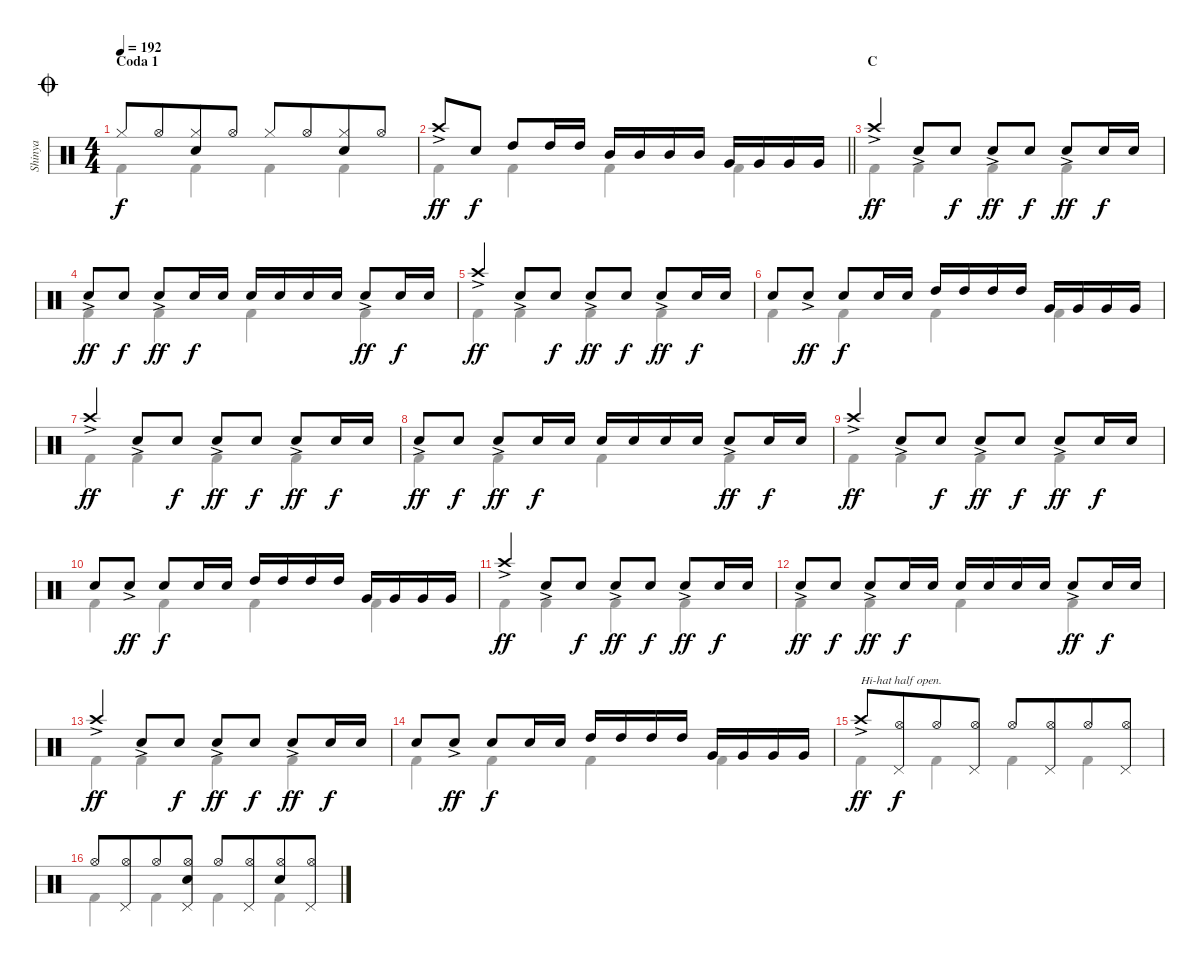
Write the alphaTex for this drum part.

\track ("Shinya" "Shinya") {instrument percussion}
\staff {score}
\articulation defaults
\voice
\ts (4 4)
\section ("" "Coda 1")
\jump coda
\tempo 192
\clef neutral
\ks c "Hi-Hat (closed)".8{dy f} "Hi-Hat (open)".8{beam merge}
("Hi-Hat (closed)" "Snare (hit) 2").8 "Hi-Hat (open)".8{beam split} "Hi-Hat (closed)".8 "Hi-Hat (open)".8{beam merge} ("Hi-Hat (closed)" "Snare (hit) 2").8 "Hi-Hat (open)".8 |
\barLineRight lightlight "Crash high (hit)"{ac}.8{dy ff} "Snare (hit) 2".8{dy f} "High Tom (hit)".8 "High Tom (hit)".16 "High Tom (hit)".16 "Mid Tom (hit)".16 "Mid Tom (hit)".16 "Mid Tom (hit)".16 "Mid Tom (hit)".16 "Very Low Tom (hit)".16 "Very Low Tom (hit)".16 "Very Low Tom (hit)".16 "Very Low Tom (hit)".16
|
\section ("" "C")
"Crash high (hit)"{ac}.4{dy ff} "Snare (hit) 2"{ac}.8 "Snare (hit) 2".8{dy f} "Snare (hit) 2"{ac}.8{dy ff} "Snare (hit) 2".8{dy f} "Snare (hit) 2"{ac}.8{dy ff} "Snare (hit) 2".16{dy f} "Snare (hit) 2".16 |
"Snare (hit) 2"{ac}.8{dy ff} "Snare (hit) 2".8{dy f} "Snare (hit) 2"{ac}.8{dy ff} "Snare (hit) 2".16{dy f} "Snare (hit) 2".16 "Snare (hit) 2".16 "Snare (hit) 2".16 "Snare (hit) 2".16 "Snare (hit) 2".16 "Snare (hit) 2"{ac}.8{dy ff} "Snare (hit) 2".16{dy f} "Snare (hit) 2".16 |
"Crash high (hit)"{ac}.4{dy ff} "Snare (hit) 2"{ac}.8 "Snare (hit) 2".8{dy f} "Snare (hit) 2"{ac}.8{dy ff} "Snare (hit) 2".8{dy f} "Snare (hit) 2"{ac}.8{dy ff} "Snare (hit) 2".16{dy f} "Snare (hit) 2".16 |
"Snare (hit) 2".8 "Snare (hit) 2"{ac}.8{dy ff} "Snare (hit) 2".8{dy f} "Snare (hit) 2".16 "Snare (hit) 2".16 "High Tom (hit)".16 "High Tom (hit)".16 "High Tom (hit)".16 "High Tom (hit)".16 "Very Low Tom (hit)".16 "Very Low Tom (hit)".16 "Very Low Tom (hit)".16 "Very Low Tom (hit)".16 |
"Crash high (hit)"{ac}.4{dy ff} "Snare (hit) 2"{ac}.8 "Snare (hit) 2".8{dy f} "Snare (hit) 2"{ac}.8{dy ff} "Snare (hit) 2".8{dy f} "Snare (hit) 2"{ac}.8{dy ff} "Snare (hit) 2".16{dy f} "Snare (hit) 2".16 |
"Snare (hit) 2"{ac}.8{dy ff} "Snare (hit) 2".8{dy f} "Snare (hit) 2"{ac}.8{dy ff} "Snare (hit) 2".16{dy f} "Snare (hit) 2".16 "Snare (hit) 2".16 "Snare (hit) 2".16 "Snare (hit) 2".16 "Snare (hit) 2".16 "Snare (hit) 2"{ac}.8{dy ff} "Snare (hit) 2".16{dy f} "Snare (hit) 2".16 |
"Crash high (hit)"{ac}.4{dy ff} "Snare (hit) 2"{ac}.8 "Snare (hit) 2".8{dy f} "Snare (hit) 2"{ac}.8{dy ff} "Snare (hit) 2".8{dy f} "Snare (hit) 2"{ac}.8{dy ff} "Snare (hit) 2".16{dy f} "Snare (hit) 2".16 |
"Snare (hit) 2".8 "Snare (hit) 2"{ac}.8{dy ff} "Snare (hit) 2".8{dy f} "Snare (hit) 2".16 "Snare (hit) 2".16 "High Tom (hit)".16 "High Tom (hit)".16 "High Tom (hit)".16 "High Tom (hit)".16 "Very Low Tom (hit)".16 "Very Low Tom (hit)".16 "Very Low Tom (hit)".16 "Very Low Tom (hit)".16 |
"Crash high (hit)"{ac}.4{dy ff} "Snare (hit) 2"{ac}.8 "Snare (hit) 2".8{dy f} "Snare (hit) 2"{ac}.8{dy ff} "Snare (hit) 2".8{dy f} "Snare (hit) 2"{ac}.8{dy ff} "Snare (hit) 2".16{dy f} "Snare (hit) 2".16 |
"Snare (hit) 2"{ac}.8{dy ff} "Snare (hit) 2".8{dy f} "Snare (hit) 2"{ac}.8{dy ff} "Snare (hit) 2".16{dy f} "Snare (hit) 2".16 "Snare (hit) 2".16 "Snare (hit) 2".16 "Snare (hit) 2".16 "Snare (hit) 2".16 "Snare (hit) 2"{ac}.8{dy ff} "Snare (hit) 2".16{dy f} "Snare (hit) 2".16 |
"Crash high (hit)"{ac}.4{dy ff} "Snare (hit) 2"{ac}.8 "Snare (hit) 2".8{dy f} "Snare (hit) 2"{ac}.8{dy ff} "Snare (hit) 2".8{dy f} "Snare (hit) 2"{ac}.8{dy ff} "Snare (hit) 2".16{dy f} "Snare (hit) 2".16 |
"Snare (hit) 2".8 "Snare (hit) 2"{ac}.8{dy ff} "Snare (hit) 2".8{dy f} "Snare (hit) 2".16 "Snare (hit) 2".16 "High Tom (hit)".16 "High Tom (hit)".16 "High Tom (hit)".16 "High Tom (hit)".16 "Very Low Tom (hit)".16 "Very Low Tom (hit)".16 "Very Low Tom (hit)".16 "Very Low Tom (hit)".16 |
"Crash high (hit)"{ac}.8{txt "Hi-hat half open." dy ff} ("Hi-Hat (open)" "Pedal Hi-Hat (hit)").8{dy f beam merge} "Hi-Hat (open)".8 ("Hi-Hat (open)" "Pedal Hi-Hat (hit)").8 "Hi-Hat (open)".8 ("Hi-Hat (open)" "Pedal Hi-Hat (hit)").8{beam merge} "Hi-Hat (open)".8 ("Hi-Hat (open)" "Pedal Hi-Hat (hit)").8 |
"Hi-Hat (open)".8 ("Hi-Hat (open)" "Pedal Hi-Hat (hit)").8{beam merge} "Hi-Hat (open)".8 ("Hi-Hat (open)" "Pedal Hi-Hat (hit)" "Snare (hit) 2").8 "Hi-Hat (open)".8 ("Hi-Hat (open)" "Pedal Hi-Hat (hit)").8{beam merge} ("Hi-Hat (open)" "Snare (hit) 2").8 ("Hi-Hat (open)" "Pedal Hi-Hat (hit)").8
\voice
\clef neutral
\ottava regular
\simile none
\ks c "Kick (hit) 2".4{dy f} "Kick (hit) 2".4 "Kick (hit) 2".4 "Kick (hit) 2".4
|
\barLineRight lightlight "Kick (hit) 2".4 "Kick (hit) 2".4 "Kick (hit) 2".4 "Kick (hit) 2".4
|
"Kick (hit) 2".4 "Kick (hit) 2".4 "Kick (hit) 2".4 "Kick (hit) 2".4 |
"Kick (hit) 2".4 "Kick (hit) 2".4 "Kick (hit) 2".4 "Kick (hit) 2".4 |
"Kick (hit) 2".4 "Kick (hit) 2".4 "Kick (hit) 2".4 "Kick (hit) 2".4 |
"Kick (hit) 2".4 "Kick (hit) 2".4 "Kick (hit) 2".4 "Kick (hit) 2".4 |
"Kick (hit) 2".4 "Kick (hit) 2".4 "Kick (hit) 2".4 "Kick (hit) 2".4 |
"Kick (hit) 2".4 "Kick (hit) 2".4 "Kick (hit) 2".4 "Kick (hit) 2".4 |
"Kick (hit) 2".4 "Kick (hit) 2".4 "Kick (hit) 2".4 "Kick (hit) 2".4 |
"Kick (hit) 2".4 "Kick (hit) 2".4 "Kick (hit) 2".4 "Kick (hit) 2".4 |
"Kick (hit) 2".4 "Kick (hit) 2".4 "Kick (hit) 2".4 "Kick (hit) 2".4 |
"Kick (hit) 2".4 "Kick (hit) 2".4 "Kick (hit) 2".4 "Kick (hit) 2".4 |
"Kick (hit) 2".4 "Kick (hit) 2".4 "Kick (hit) 2".4 "Kick (hit) 2".4 |
"Kick (hit) 2".4 "Kick (hit) 2".4 "Kick (hit) 2".4 "Kick (hit) 2".4 |
"Kick (hit) 2".4 "Kick (hit) 2".4 "Kick (hit) 2".4 "Kick (hit) 2".4 |
"Kick (hit) 2".4 "Kick (hit) 2".4 "Kick (hit) 2".4 "Kick (hit) 2".4
